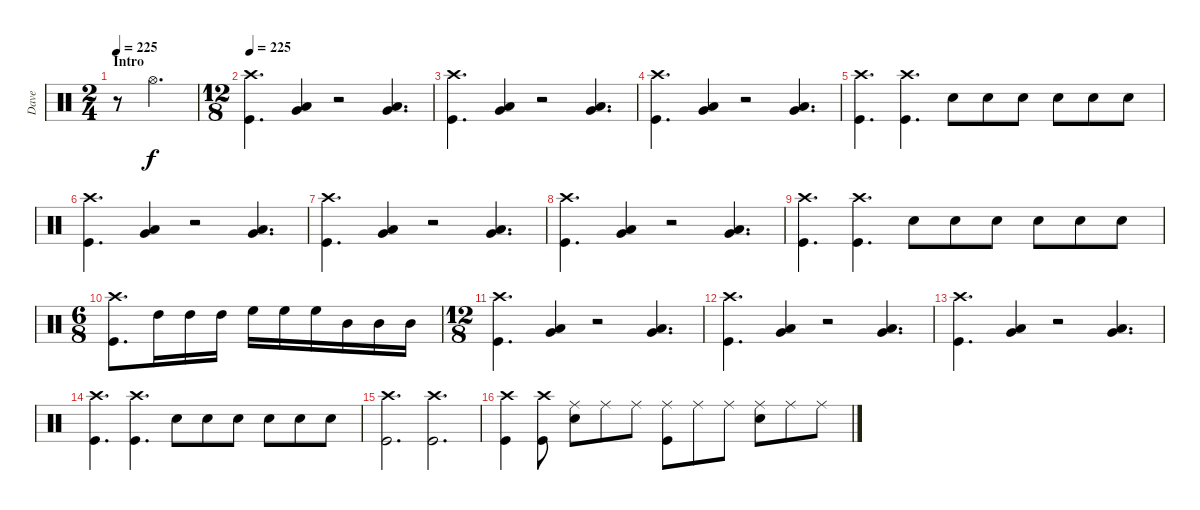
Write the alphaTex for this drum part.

\track ("Dave" "Dave") {instrument percussion}
\staff {score}
\articulation defaults
\ts (2 4)
\section ("" "Intro")
\tempo 225
\clef neutral
\ks c
r.8{dy f} "Hi-Hat (open)".4{d} |
\ts (12 8)
\tempo 225
("Crash high (hit)" "Kick (hit)").4{d} ("Very Low Tom (hit)" "Low Floor Tom (hit)").4 r.2 ("Very Low Tom (hit)" "Low Floor Tom (hit)").4{d} |
("Crash high (hit)" "Kick (hit)").4{d} ("Very Low Tom (hit)" "Low Floor Tom (hit)").4 r.2 ("Very Low Tom (hit)" "Low Floor Tom (hit)").4{d} |
("Crash high (hit)" "Kick (hit)").4{d} ("Very Low Tom (hit)" "Low Floor Tom (hit)").4 r.2 ("Very Low Tom (hit)" "Low Floor Tom (hit)").4{d} |
("Crash high (hit)" "Kick (hit)").4{d} ("Crash high (hit)" "Kick (hit)").4{d} "Snare (hit) 2".8 "Snare (hit) 2".8 "Snare (hit) 2".8 "Snare (hit) 2".8 "Snare (hit) 2".8 "Snare (hit) 2".8 |
("Crash high (hit)" "Kick (hit)").4{d} ("Very Low Tom (hit)" "Low Floor Tom (hit)").4 r.2 ("Very Low Tom (hit)" "Low Floor Tom (hit)").4{d} |
("Crash high (hit)" "Kick (hit)").4{d} ("Very Low Tom (hit)" "Low Floor Tom (hit)").4 r.2 ("Very Low Tom (hit)" "Low Floor Tom (hit)").4{d} |
("Crash high (hit)" "Kick (hit)").4{d} ("Very Low Tom (hit)" "Low Floor Tom (hit)").4 r.2 ("Very Low Tom (hit)" "Low Floor Tom (hit)").4{d} |
("Crash high (hit)" "Kick (hit)").4{d} ("Crash high (hit)" "Kick (hit)").4{d} "Snare (hit) 2".8 "Snare (hit) 2".8 "Snare (hit) 2".8 "Snare (hit) 2".8 "Snare (hit) 2".8 "Snare (hit) 2".8 |
\ts (6 8)
("Crash high (hit)" "Kick (hit)").8{d} "High Tom (hit)".16 "High Tom (hit)".16 "High Tom (hit)".16 "High Floor Tom (hit)".16 "High Floor Tom (hit)".16 "High Floor Tom (hit)".16 "Mid Tom (hit)".16 "Mid Tom (hit)".16 "Mid Tom (hit)".16 |
\ts (12 8)
("Crash high (hit)" "Kick (hit)").4{d} ("Very Low Tom (hit)" "Low Floor Tom (hit)").4 r.2 ("Very Low Tom (hit)" "Low Floor Tom (hit)").4{d} |
("Crash high (hit)" "Kick (hit)").4{d} ("Very Low Tom (hit)" "Low Floor Tom (hit)").4 r.2 ("Very Low Tom (hit)" "Low Floor Tom (hit)").4{d} |
("Crash high (hit)" "Kick (hit)").4{d} ("Very Low Tom (hit)" "Low Floor Tom (hit)").4 r.2 ("Very Low Tom (hit)" "Low Floor Tom (hit)").4{d} |
("Crash high (hit)" "Kick (hit)").4{d} ("Crash high (hit)" "Kick (hit)").4{d} "Snare (hit) 2".8 "Snare (hit) 2".8 "Snare (hit) 2".8 "Snare (hit) 2".8 "Snare (hit) 2".8 "Snare (hit) 2".8 |
("Crash high (hit)" "Kick (hit)").2{d} ("Crash high (hit)" "Kick (hit)").2{d} |
("Crash high (hit)" "Kick (hit)").4 ("Crash high (hit)" "Kick (hit)").8 ("Ride (middle)" "Snare (hit) 2").8 "Ride (middle)".8 "Ride (middle)".8 ("Ride (middle)" "Kick (hit)").8 "Ride (middle)".8 "Ride (middle)".8 ("Ride (middle)" "Snare (hit) 2").8 "Ride (middle)".8 "Ride (middle)".8
